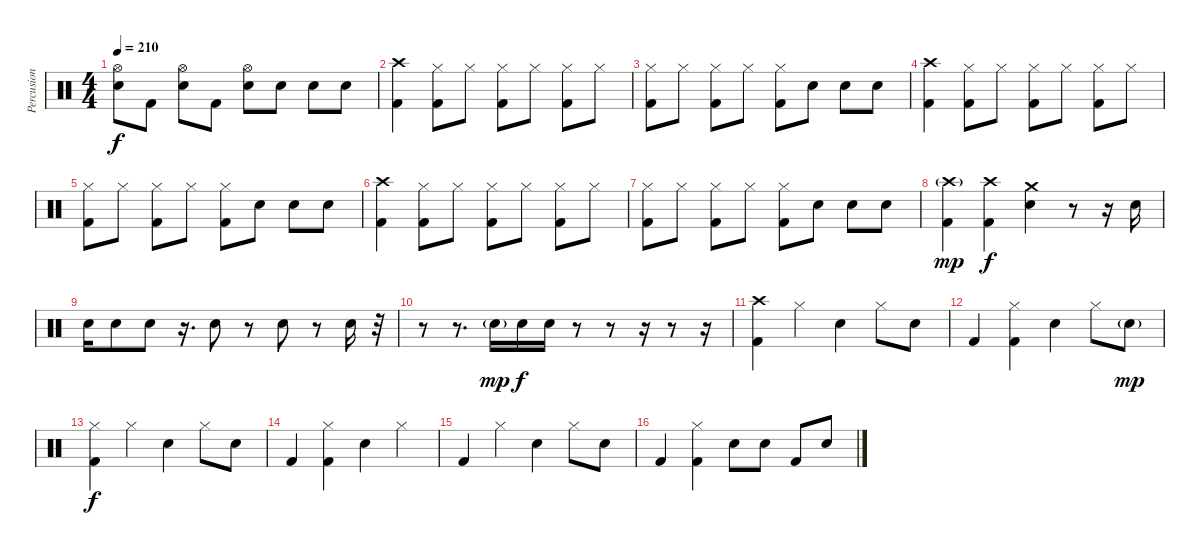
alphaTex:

\track ("Percusion" "Percusion") {instrument percussion}
\staff {score}
\articulation defaults
\ts (4 4)
\tempo 210
\clef neutral
\ks c
("Hi-Hat (open)" "Snare (hit) 2").8{dy f} "Kick (hit) 2".8 ("Hi-Hat (open)" "Snare (hit) 2").8 "Kick (hit) 2".8 ("Hi-Hat (open)" "Snare (hit) 2").8 "Snare (hit) 2".8 "Snare (hit) 2".8 "Snare (hit) 2".8 |
("Crash high (hit)" "Kick (hit) 2").4 ("Hi-Hat (closed)" "Kick (hit) 2").8 "Hi-Hat (closed)".8 ("Hi-Hat (closed)" "Kick (hit) 2").8 "Hi-Hat (closed)".8 ("Hi-Hat (closed)" "Kick (hit) 2").8 "Hi-Hat (closed)".8 |
("Hi-Hat (closed)" "Kick (hit) 2").8 "Hi-Hat (closed)".8 ("Hi-Hat (closed)" "Kick (hit) 2").8 "Hi-Hat (closed)".8 ("Hi-Hat (closed)" "Kick (hit) 2").8 "Snare (hit) 2".8 "Snare (hit) 2".8 "Snare (hit) 2".8 |
("Crash high (hit)" "Kick (hit) 2").4 ("Hi-Hat (closed)" "Kick (hit) 2").8 "Hi-Hat (closed)".8 ("Hi-Hat (closed)" "Kick (hit) 2").8 "Hi-Hat (closed)".8 ("Hi-Hat (closed)" "Kick (hit) 2").8 "Hi-Hat (closed)".8 |
("Hi-Hat (closed)" "Kick (hit) 2").8 "Hi-Hat (closed)".8 ("Hi-Hat (closed)" "Kick (hit) 2").8 "Hi-Hat (closed)".8 ("Hi-Hat (closed)" "Kick (hit) 2").8 "Snare (hit) 2".8 "Snare (hit) 2".8 "Snare (hit) 2".8 |
("Crash high (hit)" "Kick (hit) 2").4 ("Hi-Hat (closed)" "Kick (hit) 2").8 "Hi-Hat (closed)".8 ("Hi-Hat (closed)" "Kick (hit) 2").8 "Hi-Hat (closed)".8 ("Hi-Hat (closed)" "Kick (hit) 2").8 "Hi-Hat (closed)".8 |
("Hi-Hat (closed)" "Kick (hit) 2").8 "Hi-Hat (closed)".8 ("Hi-Hat (closed)" "Kick (hit) 2").8 "Hi-Hat (closed)".8 ("Hi-Hat (closed)" "Kick (hit) 2").8 "Snare (hit) 2".8 "Snare (hit) 2".8 "Snare (hit) 2".8 |
("Crash high (hit)"{g} "Kick (hit) 2").4{dy mp} ("Crash high (hit)" "Kick (hit) 2").4{dy f} ("Crash medium (hit)" "Snare (hit) 2").4 r.8 r.16 "Snare (hit) 2".16 |
"Snare (hit) 2".16 "Snare (hit) 2".8 "Snare (hit) 2".8 r.16{d} "Snare (hit) 2".8 r.8 "Snare (hit) 2".8 r.8 "Snare (hit) 2".16 r.32 |
r.8 r.8{d} "Snare (hit) 2"{g}.16{dy mp} "Snare (hit) 2".16{dy f} "Snare (hit) 2".16 r.8 r.8 r.16 r.8 r.16 |
("Crash high (hit)" "Kick (hit) 2").4 "Hi-Hat (closed)".4 "Snare (hit) 2".4 "Hi-Hat (closed)".8 "Snare (hit) 2".8 |
"Kick (hit) 2".4 ("Hi-Hat (closed)" "Kick (hit) 2").4 "Snare (hit) 2".4 "Hi-Hat (closed)".8 "Snare (hit) 2"{g}.8{dy mp} |
("Hi-Hat (closed)" "Kick (hit) 2").4{dy f} "Hi-Hat (closed)".4 "Snare (hit) 2".4 "Hi-Hat (closed)".8 "Snare (hit) 2".8 |
"Kick (hit) 2".4 ("Hi-Hat (closed)" "Kick (hit) 2").4 "Snare (hit) 2".4 "Hi-Hat (closed)".4 |
"Kick (hit) 2".4 "Hi-Hat (closed)".4 "Snare (hit) 2".4 "Hi-Hat (closed)".8 "Snare (hit) 2".8 |
"Kick (hit) 2".4 ("Hi-Hat (closed)" "Kick (hit) 2").4 "Snare (hit) 2".8 "Snare (hit) 2".8 "Kick (hit) 2".8 "Snare (hit) 2".8
